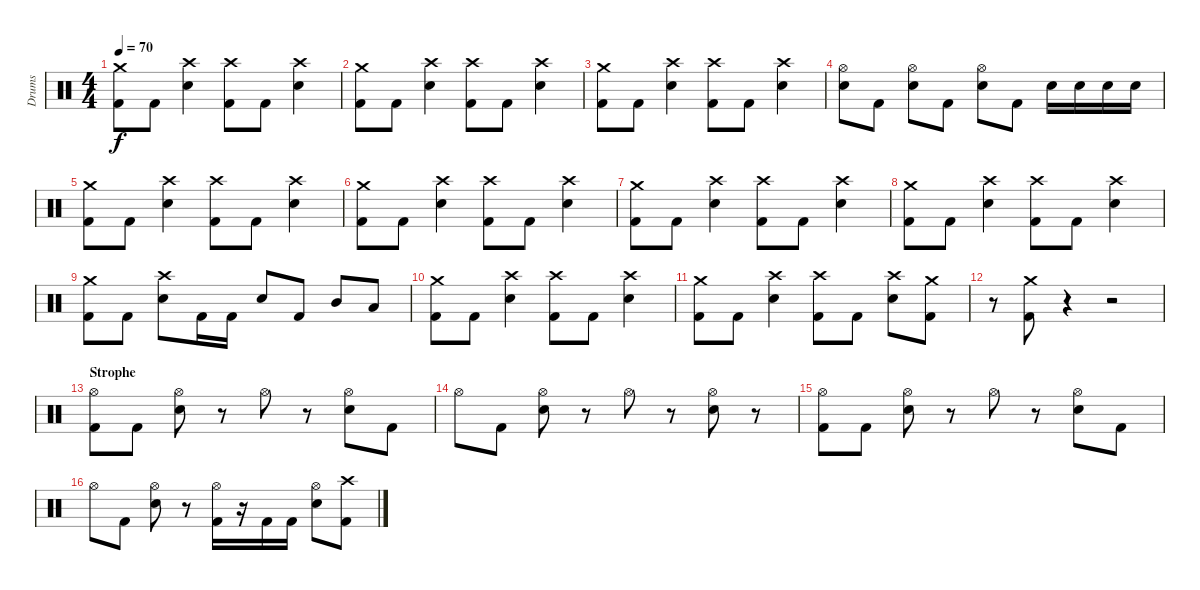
\track ("Drums" "Drums") {instrument percussion}
\staff {score}
\articulation defaults
\ts (4 4)
\tempo 70
\clef neutral
\ks c
("Crash medium (hit)" "Kick (hit) 2").8{dy f} "Kick (hit) 2".8 ("Crash high (hit)" "Snare (hit) 2").4 ("Crash high (hit)" "Kick (hit) 2").8 "Kick (hit) 2".8 ("Crash high (hit)" "Snare (hit) 2").4 |
("Crash medium (hit)" "Kick (hit) 2").8 "Kick (hit) 2".8 ("Crash high (hit)" "Snare (hit) 2").4 ("Crash high (hit)" "Kick (hit) 2").8 "Kick (hit) 2".8 ("Crash high (hit)" "Snare (hit) 2").4 |
("Crash medium (hit)" "Kick (hit) 2").8 "Kick (hit) 2".8 ("Crash high (hit)" "Snare (hit) 2").4 ("Crash high (hit)" "Kick (hit) 2").8 "Kick (hit) 2".8 ("Crash high (hit)" "Snare (hit) 2").4 |
("Hi-Hat (open)" "Snare (hit) 2").8 "Kick (hit) 2".8 ("Hi-Hat (open)" "Snare (hit) 2").8 "Kick (hit) 2".8 ("Hi-Hat (open)" "Snare (hit) 2").8 "Kick (hit) 2".8 "Snare (hit) 2".16 "Snare (hit) 2".16 "Snare (hit) 2".16 "Snare (hit) 2".16 |
("Crash medium (hit)" "Kick (hit) 2").8 "Kick (hit) 2".8 ("Crash high (hit)" "Snare (hit) 2").4 ("Crash high (hit)" "Kick (hit) 2").8 "Kick (hit) 2".8 ("Crash high (hit)" "Snare (hit) 2").4 |
("Crash medium (hit)" "Kick (hit) 2").8 "Kick (hit) 2".8 ("Crash high (hit)" "Snare (hit) 2").4 ("Crash high (hit)" "Kick (hit) 2").8 "Kick (hit) 2".8 ("Crash high (hit)" "Snare (hit) 2").4 |
("Crash medium (hit)" "Kick (hit) 2").8 "Kick (hit) 2".8 ("Crash high (hit)" "Snare (hit) 2").4 ("Crash high (hit)" "Kick (hit) 2").8 "Kick (hit) 2".8 ("Crash high (hit)" "Snare (hit) 2").4 |
("Crash medium (hit)" "Kick (hit) 2").8 "Kick (hit) 2".8 ("Crash high (hit)" "Snare (hit) 2").4 ("Crash high (hit)" "Kick (hit) 2").8 "Kick (hit) 2".8 ("Crash high (hit)" "Snare (hit) 2").4 |
("Crash medium (hit)" "Kick (hit) 2").8 "Kick (hit) 2".8 ("Crash high (hit)" "Snare (hit) 2").8 "Kick (hit) 2".16 "Kick (hit) 2".16 "Snare (hit) 2".8 "Kick (hit) 2".8 "Mid Tom (hit)".8 "Low Tom (hit)".8 |
("Crash medium (hit)" "Kick (hit) 2").8 "Kick (hit) 2".8 ("Crash high (hit)" "Snare (hit) 2").4 ("Crash high (hit)" "Kick (hit) 2").8 "Kick (hit) 2".8 ("Crash high (hit)" "Snare (hit) 2").4 |
("Crash medium (hit)" "Kick (hit) 2").8 "Kick (hit) 2".8 ("Crash high (hit)" "Snare (hit) 2").4 ("Crash high (hit)" "Kick (hit) 2").8 "Kick (hit) 2".8 ("Crash high (hit)" "Snare (hit) 2").8 ("Crash medium (hit)" "Kick (hit) 2").8 |
r.8 ("Crash medium (hit)" "Kick (hit) 2").8 r.4 r.2 |
\section ("" "Strophe")
("Hi-Hat (open)" "Kick (hit) 2").8 "Kick (hit) 2".8 ("Hi-Hat (open)" "Snare (hit) 2").8 r.8 "Hi-Hat (open)".8 r.8 ("Hi-Hat (open)" "Snare (hit) 2").8 "Kick (hit) 2".8 |
"Hi-Hat (open)".8 "Kick (hit) 2".8 ("Hi-Hat (open)" "Snare (hit) 2").8 r.8 "Hi-Hat (open)".8 r.8 ("Hi-Hat (open)" "Snare (hit) 2").8 r.8 |
("Hi-Hat (open)" "Kick (hit) 2").8 "Kick (hit) 2".8 ("Hi-Hat (open)" "Snare (hit) 2").8 r.8 "Hi-Hat (open)".8 r.8 ("Hi-Hat (open)" "Snare (hit) 2").8 "Kick (hit) 2".8 |
"Hi-Hat (open)".8 "Kick (hit) 2".8 ("Hi-Hat (open)" "Snare (hit) 2").8 r.8 ("Hi-Hat (open)" "Kick (hit) 2").16 r.16 "Kick (hit) 2".16 "Kick (hit) 2".16 ("Hi-Hat (open)" "Snare (hit) 2").8 ("Crash high (hit)" "Kick (hit) 2").8
